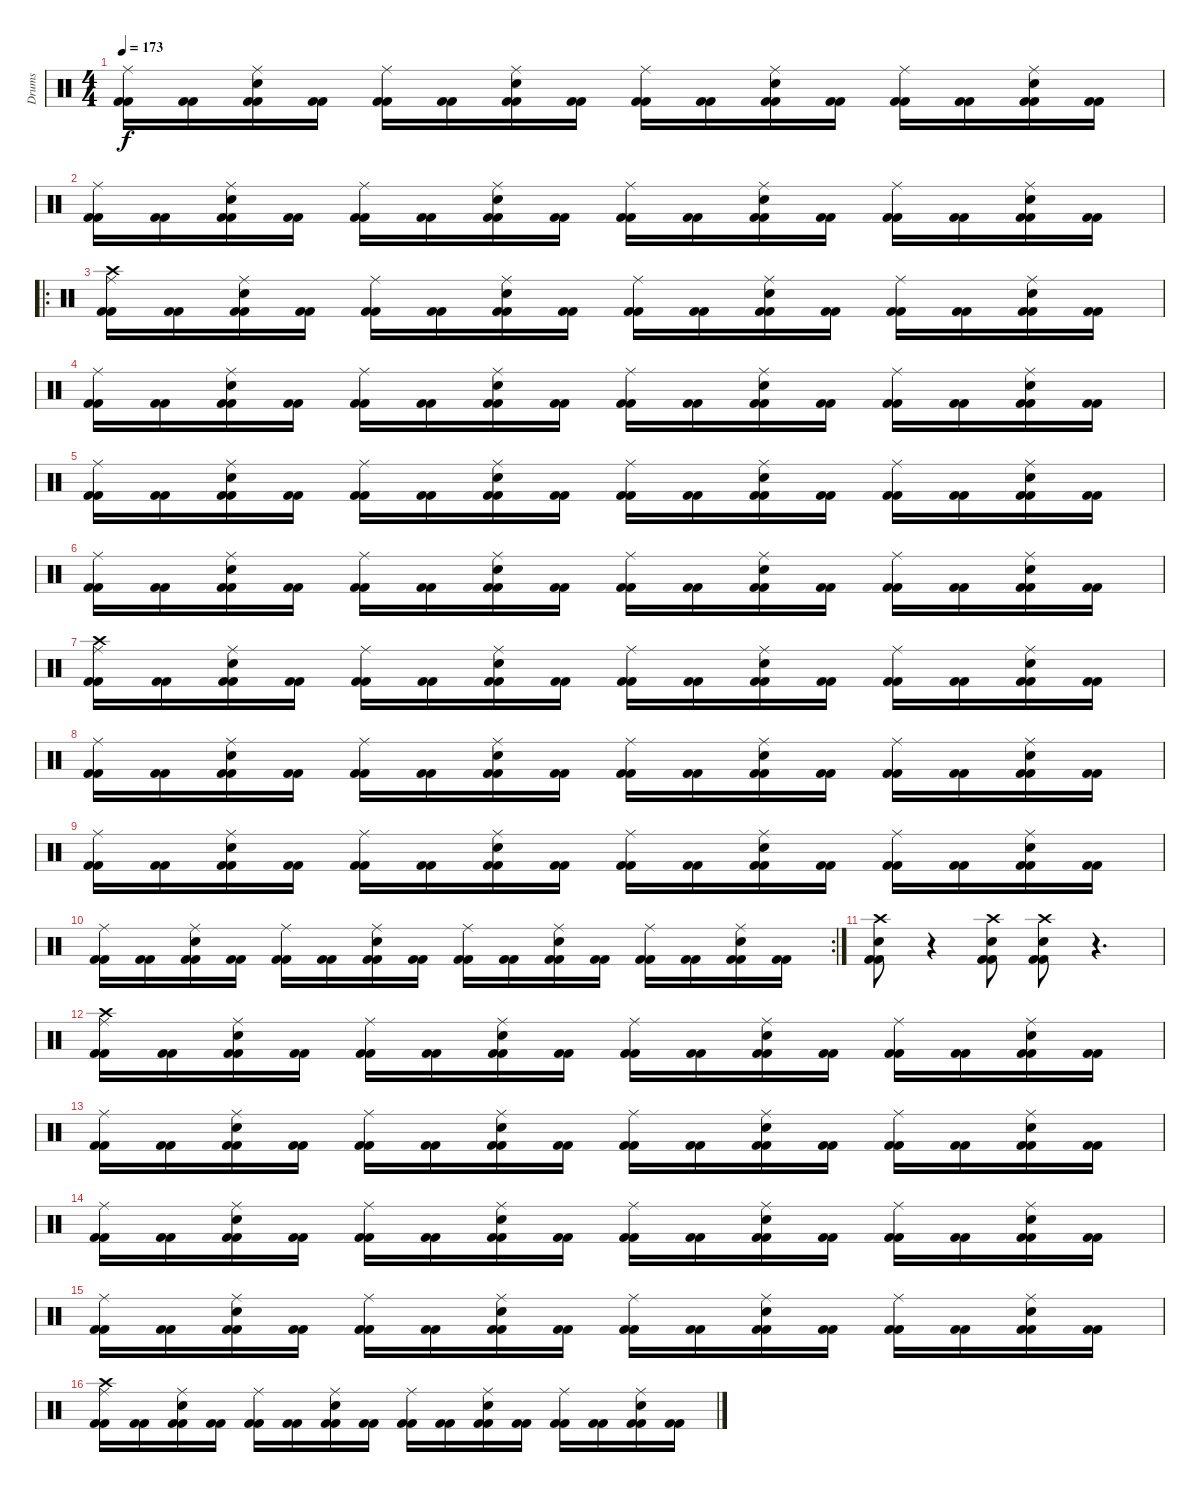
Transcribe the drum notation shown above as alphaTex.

\track ("Drums" "Drums") {instrument percussion}
\staff {score}
\articulation defaults
\ts (4 4)
\tempo 173
\clef neutral
\ks c
("Kick (hit) 2" "Kick (hit) 2" "Ride (middle)").16{dy f} ("Kick (hit) 2" "Kick (hit) 2").16 ("Kick (hit) 2" "Kick (hit) 2" "Ride (middle)" "Electric Snare (hit)").16 ("Kick (hit) 2" "Kick (hit) 2").16 ("Kick (hit) 2" "Kick (hit) 2" "Ride (middle)").16 ("Kick (hit) 2" "Kick (hit) 2").16 ("Kick (hit) 2" "Kick (hit) 2" "Ride (middle)" "Electric Snare (hit)").16 ("Kick (hit) 2" "Kick (hit) 2").16 ("Kick (hit) 2" "Kick (hit) 2" "Ride (middle)").16 ("Kick (hit) 2" "Kick (hit) 2").16 ("Kick (hit) 2" "Kick (hit) 2" "Ride (middle)" "Electric Snare (hit)").16 ("Kick (hit) 2" "Kick (hit) 2").16 ("Kick (hit) 2" "Kick (hit) 2" "Ride (middle)").16 ("Kick (hit) 2" "Kick (hit) 2").16 ("Kick (hit) 2" "Kick (hit) 2" "Ride (middle)" "Electric Snare (hit)").16 ("Kick (hit) 2" "Kick (hit) 2").16 |
("Kick (hit) 2" "Kick (hit) 2" "Ride (middle)").16 ("Kick (hit) 2" "Kick (hit) 2").16 ("Kick (hit) 2" "Kick (hit) 2" "Ride (middle)" "Electric Snare (hit)").16 ("Kick (hit) 2" "Kick (hit) 2").16 ("Kick (hit) 2" "Kick (hit) 2" "Ride (middle)").16 ("Kick (hit) 2" "Kick (hit) 2").16 ("Kick (hit) 2" "Kick (hit) 2" "Ride (middle)" "Electric Snare (hit)").16 ("Kick (hit) 2" "Kick (hit) 2").16 ("Kick (hit) 2" "Kick (hit) 2" "Ride (middle)").16 ("Kick (hit) 2" "Kick (hit) 2").16 ("Kick (hit) 2" "Kick (hit) 2" "Ride (middle)" "Electric Snare (hit)").16 ("Kick (hit) 2" "Kick (hit) 2").16 ("Kick (hit) 2" "Kick (hit) 2" "Ride (middle)").16 ("Kick (hit) 2" "Kick (hit) 2").16 ("Kick (hit) 2" "Kick (hit) 2" "Ride (middle)" "Electric Snare (hit)").16 ("Kick (hit) 2" "Kick (hit) 2").16 |
\ro
("Kick (hit) 2" "Kick (hit) 2" "Ride (middle)" "Crash high (hit)").16 ("Kick (hit) 2" "Kick (hit) 2").16 ("Kick (hit) 2" "Kick (hit) 2" "Ride (middle)" "Electric Snare (hit)").16 ("Kick (hit) 2" "Kick (hit) 2").16 ("Kick (hit) 2" "Kick (hit) 2" "Ride (middle)").16 ("Kick (hit) 2" "Kick (hit) 2").16 ("Kick (hit) 2" "Kick (hit) 2" "Ride (middle)" "Electric Snare (hit)").16 ("Kick (hit) 2" "Kick (hit) 2").16 ("Kick (hit) 2" "Kick (hit) 2" "Ride (middle)").16 ("Kick (hit) 2" "Kick (hit) 2").16 ("Kick (hit) 2" "Kick (hit) 2" "Ride (middle)" "Electric Snare (hit)").16 ("Kick (hit) 2" "Kick (hit) 2").16 ("Kick (hit) 2" "Kick (hit) 2" "Ride (middle)").16 ("Kick (hit) 2" "Kick (hit) 2").16 ("Kick (hit) 2" "Kick (hit) 2" "Ride (middle)" "Electric Snare (hit)").16 ("Kick (hit) 2" "Kick (hit) 2").16 |
("Kick (hit) 2" "Kick (hit) 2" "Ride (middle)").16 ("Kick (hit) 2" "Kick (hit) 2").16 ("Kick (hit) 2" "Kick (hit) 2" "Ride (middle)" "Electric Snare (hit)").16 ("Kick (hit) 2" "Kick (hit) 2").16 ("Kick (hit) 2" "Kick (hit) 2" "Ride (middle)").16 ("Kick (hit) 2" "Kick (hit) 2").16 ("Kick (hit) 2" "Kick (hit) 2" "Ride (middle)" "Electric Snare (hit)").16 ("Kick (hit) 2" "Kick (hit) 2").16 ("Kick (hit) 2" "Kick (hit) 2" "Ride (middle)").16 ("Kick (hit) 2" "Kick (hit) 2").16 ("Kick (hit) 2" "Kick (hit) 2" "Ride (middle)" "Electric Snare (hit)").16 ("Kick (hit) 2" "Kick (hit) 2").16 ("Kick (hit) 2" "Kick (hit) 2" "Ride (middle)").16 ("Kick (hit) 2" "Kick (hit) 2").16 ("Kick (hit) 2" "Kick (hit) 2" "Ride (middle)" "Electric Snare (hit)").16 ("Kick (hit) 2" "Kick (hit) 2").16 |
("Kick (hit) 2" "Kick (hit) 2" "Ride (middle)").16 ("Kick (hit) 2" "Kick (hit) 2").16 ("Kick (hit) 2" "Kick (hit) 2" "Ride (middle)" "Electric Snare (hit)").16 ("Kick (hit) 2" "Kick (hit) 2").16 ("Kick (hit) 2" "Kick (hit) 2" "Ride (middle)").16 ("Kick (hit) 2" "Kick (hit) 2").16 ("Kick (hit) 2" "Kick (hit) 2" "Ride (middle)" "Electric Snare (hit)").16 ("Kick (hit) 2" "Kick (hit) 2").16 ("Kick (hit) 2" "Kick (hit) 2" "Ride (middle)").16 ("Kick (hit) 2" "Kick (hit) 2").16 ("Kick (hit) 2" "Kick (hit) 2" "Ride (middle)" "Electric Snare (hit)").16 ("Kick (hit) 2" "Kick (hit) 2").16 ("Kick (hit) 2" "Kick (hit) 2" "Ride (middle)").16 ("Kick (hit) 2" "Kick (hit) 2").16 ("Kick (hit) 2" "Kick (hit) 2" "Ride (middle)" "Electric Snare (hit)").16 ("Kick (hit) 2" "Kick (hit) 2").16 |
("Kick (hit) 2" "Kick (hit) 2" "Ride (middle)").16 ("Kick (hit) 2" "Kick (hit) 2").16 ("Kick (hit) 2" "Kick (hit) 2" "Ride (middle)" "Electric Snare (hit)").16 ("Kick (hit) 2" "Kick (hit) 2").16 ("Kick (hit) 2" "Kick (hit) 2" "Ride (middle)").16 ("Kick (hit) 2" "Kick (hit) 2").16 ("Kick (hit) 2" "Kick (hit) 2" "Ride (middle)" "Electric Snare (hit)").16 ("Kick (hit) 2" "Kick (hit) 2").16 ("Kick (hit) 2" "Kick (hit) 2" "Ride (middle)").16 ("Kick (hit) 2" "Kick (hit) 2").16 ("Kick (hit) 2" "Kick (hit) 2" "Ride (middle)" "Electric Snare (hit)").16 ("Kick (hit) 2" "Kick (hit) 2").16 ("Kick (hit) 2" "Kick (hit) 2" "Ride (middle)").16 ("Kick (hit) 2" "Kick (hit) 2").16 ("Kick (hit) 2" "Kick (hit) 2" "Ride (middle)" "Electric Snare (hit)").16 ("Kick (hit) 2" "Kick (hit) 2").16 |
("Kick (hit) 2" "Kick (hit) 2" "Ride (middle)" "Crash high (hit)").16 ("Kick (hit) 2" "Kick (hit) 2").16 ("Kick (hit) 2" "Kick (hit) 2" "Ride (middle)" "Electric Snare (hit)").16 ("Kick (hit) 2" "Kick (hit) 2").16 ("Kick (hit) 2" "Kick (hit) 2" "Ride (middle)").16 ("Kick (hit) 2" "Kick (hit) 2").16 ("Kick (hit) 2" "Kick (hit) 2" "Ride (middle)" "Electric Snare (hit)").16 ("Kick (hit) 2" "Kick (hit) 2").16 ("Kick (hit) 2" "Kick (hit) 2" "Ride (middle)").16 ("Kick (hit) 2" "Kick (hit) 2").16 ("Kick (hit) 2" "Kick (hit) 2" "Ride (middle)" "Electric Snare (hit)").16 ("Kick (hit) 2" "Kick (hit) 2").16 ("Kick (hit) 2" "Kick (hit) 2" "Ride (middle)").16 ("Kick (hit) 2" "Kick (hit) 2").16 ("Kick (hit) 2" "Kick (hit) 2" "Ride (middle)" "Electric Snare (hit)").16 ("Kick (hit) 2" "Kick (hit) 2").16 |
("Kick (hit) 2" "Kick (hit) 2" "Ride (middle)").16 ("Kick (hit) 2" "Kick (hit) 2").16 ("Kick (hit) 2" "Kick (hit) 2" "Ride (middle)" "Electric Snare (hit)").16 ("Kick (hit) 2" "Kick (hit) 2").16 ("Kick (hit) 2" "Kick (hit) 2" "Ride (middle)").16 ("Kick (hit) 2" "Kick (hit) 2").16 ("Kick (hit) 2" "Kick (hit) 2" "Ride (middle)" "Electric Snare (hit)").16 ("Kick (hit) 2" "Kick (hit) 2").16 ("Kick (hit) 2" "Kick (hit) 2" "Ride (middle)").16 ("Kick (hit) 2" "Kick (hit) 2").16 ("Kick (hit) 2" "Kick (hit) 2" "Ride (middle)" "Electric Snare (hit)").16 ("Kick (hit) 2" "Kick (hit) 2").16 ("Kick (hit) 2" "Kick (hit) 2" "Ride (middle)").16 ("Kick (hit) 2" "Kick (hit) 2").16 ("Kick (hit) 2" "Kick (hit) 2" "Ride (middle)" "Electric Snare (hit)").16 ("Kick (hit) 2" "Kick (hit) 2").16 |
("Kick (hit) 2" "Kick (hit) 2" "Ride (middle)").16 ("Kick (hit) 2" "Kick (hit) 2").16 ("Kick (hit) 2" "Kick (hit) 2" "Ride (middle)" "Electric Snare (hit)").16 ("Kick (hit) 2" "Kick (hit) 2").16 ("Kick (hit) 2" "Kick (hit) 2" "Ride (middle)").16 ("Kick (hit) 2" "Kick (hit) 2").16 ("Kick (hit) 2" "Kick (hit) 2" "Ride (middle)" "Electric Snare (hit)").16 ("Kick (hit) 2" "Kick (hit) 2").16 ("Kick (hit) 2" "Kick (hit) 2" "Ride (middle)").16 ("Kick (hit) 2" "Kick (hit) 2").16 ("Kick (hit) 2" "Kick (hit) 2" "Ride (middle)" "Electric Snare (hit)").16 ("Kick (hit) 2" "Kick (hit) 2").16 ("Kick (hit) 2" "Kick (hit) 2" "Ride (middle)").16 ("Kick (hit) 2" "Kick (hit) 2").16 ("Kick (hit) 2" "Kick (hit) 2" "Ride (middle)" "Electric Snare (hit)").16 ("Kick (hit) 2" "Kick (hit) 2").16 |
\rc 2
("Kick (hit) 2" "Kick (hit) 2" "Ride (middle)").16 ("Kick (hit) 2" "Kick (hit) 2").16 ("Kick (hit) 2" "Kick (hit) 2" "Ride (middle)" "Electric Snare (hit)").16 ("Kick (hit) 2" "Kick (hit) 2").16 ("Kick (hit) 2" "Kick (hit) 2" "Ride (middle)").16 ("Kick (hit) 2" "Kick (hit) 2").16 ("Kick (hit) 2" "Kick (hit) 2" "Ride (middle)" "Electric Snare (hit)").16 ("Kick (hit) 2" "Kick (hit) 2").16 ("Kick (hit) 2" "Kick (hit) 2" "Ride (middle)").16 ("Kick (hit) 2" "Kick (hit) 2").16 ("Kick (hit) 2" "Kick (hit) 2" "Ride (middle)" "Electric Snare (hit)").16 ("Kick (hit) 2" "Kick (hit) 2").16 ("Kick (hit) 2" "Kick (hit) 2" "Ride (middle)").16 ("Kick (hit) 2" "Kick (hit) 2").16 ("Kick (hit) 2" "Kick (hit) 2" "Ride (middle)" "Electric Snare (hit)").16 ("Kick (hit) 2" "Kick (hit) 2").16 |
("Kick (hit) 2" "Kick (hit) 2" "Electric Snare (hit)" "Crash high (hit)").8 r.4 ("Kick (hit) 2" "Kick (hit) 2" "Electric Snare (hit)" "Crash high (hit)").8 ("Kick (hit) 2" "Kick (hit) 2" "Electric Snare (hit)" "Crash high (hit)").8 r.4{d} |
("Kick (hit) 2" "Kick (hit) 2" "Ride (middle)" "Crash high (hit)").16 ("Kick (hit) 2" "Kick (hit) 2").16 ("Kick (hit) 2" "Kick (hit) 2" "Ride (middle)" "Electric Snare (hit)").16 ("Kick (hit) 2" "Kick (hit) 2").16 ("Kick (hit) 2" "Kick (hit) 2" "Ride (middle)").16 ("Kick (hit) 2" "Kick (hit) 2").16 ("Kick (hit) 2" "Kick (hit) 2" "Ride (middle)" "Electric Snare (hit)").16 ("Kick (hit) 2" "Kick (hit) 2").16 ("Kick (hit) 2" "Kick (hit) 2" "Ride (middle)").16 ("Kick (hit) 2" "Kick (hit) 2").16 ("Kick (hit) 2" "Kick (hit) 2" "Ride (middle)" "Electric Snare (hit)").16 ("Kick (hit) 2" "Kick (hit) 2").16 ("Kick (hit) 2" "Kick (hit) 2" "Ride (middle)").16 ("Kick (hit) 2" "Kick (hit) 2").16 ("Kick (hit) 2" "Kick (hit) 2" "Ride (middle)" "Electric Snare (hit)").16 ("Kick (hit) 2" "Kick (hit) 2").16 |
("Kick (hit) 2" "Kick (hit) 2" "Ride (middle)").16 ("Kick (hit) 2" "Kick (hit) 2").16 ("Kick (hit) 2" "Kick (hit) 2" "Ride (middle)" "Electric Snare (hit)").16 ("Kick (hit) 2" "Kick (hit) 2").16 ("Kick (hit) 2" "Kick (hit) 2" "Ride (middle)").16 ("Kick (hit) 2" "Kick (hit) 2").16 ("Kick (hit) 2" "Kick (hit) 2" "Ride (middle)" "Electric Snare (hit)").16 ("Kick (hit) 2" "Kick (hit) 2").16 ("Kick (hit) 2" "Kick (hit) 2" "Ride (middle)").16 ("Kick (hit) 2" "Kick (hit) 2").16 ("Kick (hit) 2" "Kick (hit) 2" "Ride (middle)" "Electric Snare (hit)").16 ("Kick (hit) 2" "Kick (hit) 2").16 ("Kick (hit) 2" "Kick (hit) 2" "Ride (middle)").16 ("Kick (hit) 2" "Kick (hit) 2").16 ("Kick (hit) 2" "Kick (hit) 2" "Ride (middle)" "Electric Snare (hit)").16 ("Kick (hit) 2" "Kick (hit) 2").16 |
("Kick (hit) 2" "Kick (hit) 2" "Ride (middle)").16 ("Kick (hit) 2" "Kick (hit) 2").16 ("Kick (hit) 2" "Kick (hit) 2" "Ride (middle)" "Electric Snare (hit)").16 ("Kick (hit) 2" "Kick (hit) 2").16 ("Kick (hit) 2" "Kick (hit) 2" "Ride (middle)").16 ("Kick (hit) 2" "Kick (hit) 2").16 ("Kick (hit) 2" "Kick (hit) 2" "Ride (middle)" "Electric Snare (hit)").16 ("Kick (hit) 2" "Kick (hit) 2").16 ("Kick (hit) 2" "Kick (hit) 2" "Ride (middle)").16 ("Kick (hit) 2" "Kick (hit) 2").16 ("Kick (hit) 2" "Kick (hit) 2" "Ride (middle)" "Electric Snare (hit)").16 ("Kick (hit) 2" "Kick (hit) 2").16 ("Kick (hit) 2" "Kick (hit) 2" "Ride (middle)").16 ("Kick (hit) 2" "Kick (hit) 2").16 ("Kick (hit) 2" "Kick (hit) 2" "Ride (middle)" "Electric Snare (hit)").16 ("Kick (hit) 2" "Kick (hit) 2").16 |
("Kick (hit) 2" "Kick (hit) 2" "Ride (middle)").16 ("Kick (hit) 2" "Kick (hit) 2").16 ("Kick (hit) 2" "Kick (hit) 2" "Ride (middle)" "Electric Snare (hit)").16 ("Kick (hit) 2" "Kick (hit) 2").16 ("Kick (hit) 2" "Kick (hit) 2" "Ride (middle)").16 ("Kick (hit) 2" "Kick (hit) 2").16 ("Kick (hit) 2" "Kick (hit) 2" "Ride (middle)" "Electric Snare (hit)").16 ("Kick (hit) 2" "Kick (hit) 2").16 ("Kick (hit) 2" "Kick (hit) 2" "Ride (middle)").16 ("Kick (hit) 2" "Kick (hit) 2").16 ("Kick (hit) 2" "Kick (hit) 2" "Ride (middle)" "Electric Snare (hit)").16 ("Kick (hit) 2" "Kick (hit) 2").16 ("Kick (hit) 2" "Kick (hit) 2" "Ride (middle)").16 ("Kick (hit) 2" "Kick (hit) 2").16 ("Kick (hit) 2" "Kick (hit) 2" "Ride (middle)" "Electric Snare (hit)").16 ("Kick (hit) 2" "Kick (hit) 2").16 |
("Kick (hit) 2" "Kick (hit) 2" "Ride (middle)" "Crash high (hit)").16 ("Kick (hit) 2" "Kick (hit) 2").16 ("Kick (hit) 2" "Kick (hit) 2" "Ride (middle)" "Electric Snare (hit)").16 ("Kick (hit) 2" "Kick (hit) 2").16 ("Kick (hit) 2" "Kick (hit) 2" "Ride (middle)").16 ("Kick (hit) 2" "Kick (hit) 2").16 ("Kick (hit) 2" "Kick (hit) 2" "Ride (middle)" "Electric Snare (hit)").16 ("Kick (hit) 2" "Kick (hit) 2").16 ("Kick (hit) 2" "Kick (hit) 2" "Ride (middle)").16 ("Kick (hit) 2" "Kick (hit) 2").16 ("Kick (hit) 2" "Kick (hit) 2" "Ride (middle)" "Electric Snare (hit)").16 ("Kick (hit) 2" "Kick (hit) 2").16 ("Kick (hit) 2" "Kick (hit) 2" "Ride (middle)").16 ("Kick (hit) 2" "Kick (hit) 2").16 ("Kick (hit) 2" "Kick (hit) 2" "Ride (middle)" "Electric Snare (hit)").16 ("Kick (hit) 2" "Kick (hit) 2").16
